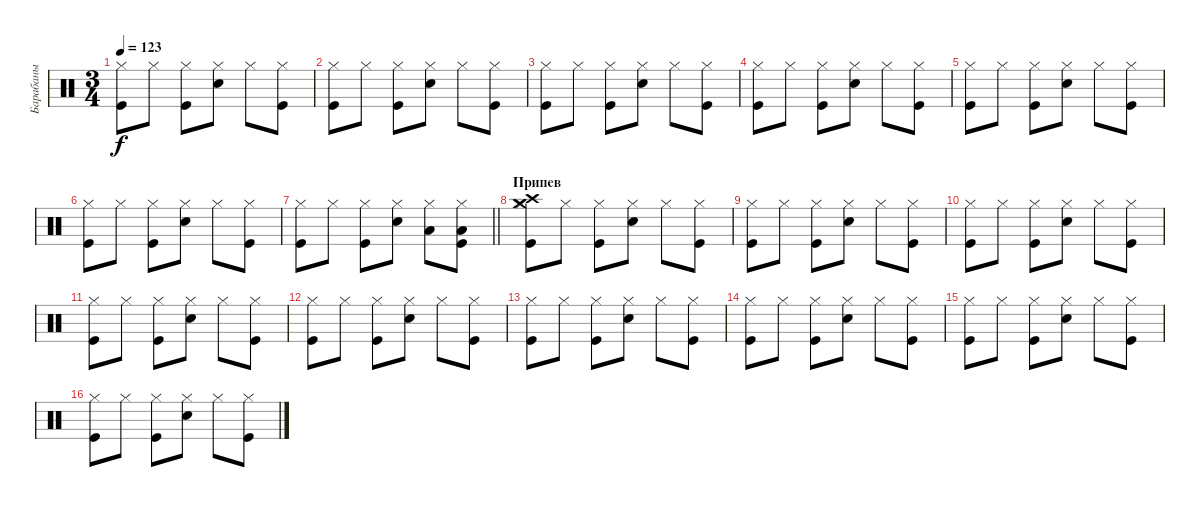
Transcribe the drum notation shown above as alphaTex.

\track ("Барабаны" "Барабаны") {instrument percussion}
\staff {score}
\articulation defaults
\ts (3 4)
\tempo 123
\clef neutral
\ks c
("Kick (hit)" "Hi-Hat (closed)").8{dy f} "Hi-Hat (closed)".8 ("Kick (hit)" "Hi-Hat (closed)").8 ("Snare (hit) 2" "Hi-Hat (closed)").8 "Hi-Hat (closed)".8 ("Kick (hit)" "Hi-Hat (closed)").8 |
("Kick (hit)" "Hi-Hat (closed)").8 "Hi-Hat (closed)".8 ("Kick (hit)" "Hi-Hat (closed)").8 ("Snare (hit) 2" "Hi-Hat (closed)").8 "Hi-Hat (closed)".8 ("Kick (hit)" "Hi-Hat (closed)").8 |
("Kick (hit)" "Hi-Hat (closed)").8 "Hi-Hat (closed)".8 ("Kick (hit)" "Hi-Hat (closed)").8 ("Snare (hit) 2" "Hi-Hat (closed)").8 "Hi-Hat (closed)".8 ("Kick (hit)" "Hi-Hat (closed)").8 |
("Kick (hit)" "Hi-Hat (closed)").8 "Hi-Hat (closed)".8 ("Kick (hit)" "Hi-Hat (closed)").8 ("Snare (hit) 2" "Hi-Hat (closed)").8 "Hi-Hat (closed)".8 ("Kick (hit)" "Hi-Hat (closed)").8 |
("Kick (hit)" "Hi-Hat (closed)").8 "Hi-Hat (closed)".8 ("Kick (hit)" "Hi-Hat (closed)").8 ("Snare (hit) 2" "Hi-Hat (closed)").8 "Hi-Hat (closed)".8 ("Kick (hit)" "Hi-Hat (closed)").8 |
("Kick (hit)" "Hi-Hat (closed)").8 "Hi-Hat (closed)".8 ("Kick (hit)" "Hi-Hat (closed)").8 ("Snare (hit) 2" "Hi-Hat (closed)").8 "Hi-Hat (closed)".8 ("Kick (hit)" "Hi-Hat (closed)").8 |
\barLineRight lightlight
("Kick (hit)" "Hi-Hat (closed)").8 "Hi-Hat (closed)".8 ("Kick (hit)" "Hi-Hat (closed)").8 ("Snare (hit) 2" "Hi-Hat (closed)").8 ("Hi-Hat (closed)" "Low Tom (hit)").8 ("Kick (hit)" "Hi-Hat (closed)" "Low Floor Tom (hit)").8 |
\section ("" "Припев")
("Kick (hit)" "Hi-Hat (closed)" "Crash high (hit)" "Crash medium (hit)").8 "Hi-Hat (closed)".8 ("Kick (hit)" "Hi-Hat (closed)").8 ("Snare (hit) 2" "Hi-Hat (closed)").8 "Hi-Hat (closed)".8 ("Kick (hit)" "Hi-Hat (closed)").8 |
("Kick (hit)" "Hi-Hat (closed)").8 "Hi-Hat (closed)".8 ("Kick (hit)" "Hi-Hat (closed)").8 ("Snare (hit) 2" "Hi-Hat (closed)").8 "Hi-Hat (closed)".8 ("Kick (hit)" "Hi-Hat (closed)").8 |
("Kick (hit)" "Hi-Hat (closed)").8 "Hi-Hat (closed)".8 ("Kick (hit)" "Hi-Hat (closed)").8 ("Snare (hit) 2" "Hi-Hat (closed)").8 "Hi-Hat (closed)".8 ("Kick (hit)" "Hi-Hat (closed)").8 |
("Kick (hit)" "Hi-Hat (closed)").8 "Hi-Hat (closed)".8 ("Kick (hit)" "Hi-Hat (closed)").8 ("Snare (hit) 2" "Hi-Hat (closed)").8 "Hi-Hat (closed)".8 ("Kick (hit)" "Hi-Hat (closed)").8 |
("Kick (hit)" "Hi-Hat (closed)").8 "Hi-Hat (closed)".8 ("Kick (hit)" "Hi-Hat (closed)").8 ("Snare (hit) 2" "Hi-Hat (closed)").8 "Hi-Hat (closed)".8 ("Kick (hit)" "Hi-Hat (closed)").8 |
("Kick (hit)" "Hi-Hat (closed)").8 "Hi-Hat (closed)".8 ("Kick (hit)" "Hi-Hat (closed)").8 ("Snare (hit) 2" "Hi-Hat (closed)").8 "Hi-Hat (closed)".8 ("Kick (hit)" "Hi-Hat (closed)").8 |
("Kick (hit)" "Hi-Hat (closed)").8 "Hi-Hat (closed)".8 ("Kick (hit)" "Hi-Hat (closed)").8 ("Snare (hit) 2" "Hi-Hat (closed)").8 "Hi-Hat (closed)".8 ("Kick (hit)" "Hi-Hat (closed)").8 |
("Kick (hit)" "Hi-Hat (closed)").8 "Hi-Hat (closed)".8 ("Kick (hit)" "Hi-Hat (closed)").8 ("Snare (hit) 2" "Hi-Hat (closed)").8 "Hi-Hat (closed)".8 ("Kick (hit)" "Hi-Hat (closed)").8 |
("Kick (hit)" "Hi-Hat (closed)").8 "Hi-Hat (closed)".8 ("Kick (hit)" "Hi-Hat (closed)").8 ("Snare (hit) 2" "Hi-Hat (closed)").8 "Hi-Hat (closed)".8 ("Kick (hit)" "Hi-Hat (closed)").8
